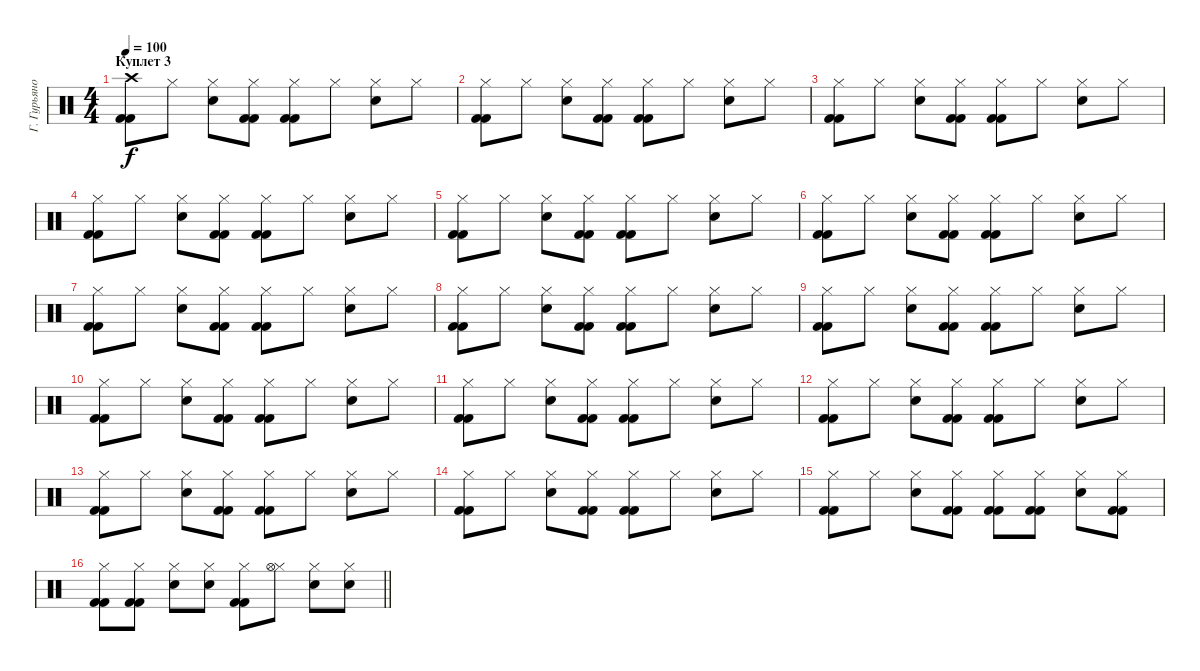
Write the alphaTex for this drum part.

\track ("Г. Гурьянов" "Г. Гурьяно") {instrument percussion}
\staff {score}
\articulation defaults
\ts (4 4)
\section ("" "Куплет 3")
\tempo 100
\clef neutral
\ks c
("Crash high (hit)" "Kick (hit) 2" "Kick (hit) 2").8{dy f} "Hi-Hat (closed)".8 ("Hi-Hat (closed)" "Snare (hit) 2").8 ("Hi-Hat (closed)" "Kick (hit) 2" "Kick (hit) 2").8 ("Hi-Hat (closed)" "Kick (hit) 2" "Kick (hit) 2").8 "Hi-Hat (closed)".8 ("Hi-Hat (closed)" "Snare (hit) 2").8 "Hi-Hat (closed)".8 |
("Hi-Hat (closed)" "Kick (hit) 2" "Kick (hit) 2").8 "Hi-Hat (closed)".8 ("Hi-Hat (closed)" "Snare (hit) 2").8 ("Hi-Hat (closed)" "Kick (hit) 2" "Kick (hit) 2").8 ("Hi-Hat (closed)" "Kick (hit) 2" "Kick (hit) 2").8 "Hi-Hat (closed)".8 ("Hi-Hat (closed)" "Snare (hit) 2").8 "Hi-Hat (closed)".8 |
("Hi-Hat (closed)" "Kick (hit) 2" "Kick (hit) 2").8 "Hi-Hat (closed)".8 ("Hi-Hat (closed)" "Snare (hit) 2").8 ("Hi-Hat (closed)" "Kick (hit) 2" "Kick (hit) 2").8 ("Hi-Hat (closed)" "Kick (hit) 2" "Kick (hit) 2").8 "Hi-Hat (closed)".8 ("Hi-Hat (closed)" "Snare (hit) 2").8 "Hi-Hat (closed)".8 |
("Hi-Hat (closed)" "Kick (hit) 2" "Kick (hit) 2").8 "Hi-Hat (closed)".8 ("Hi-Hat (closed)" "Snare (hit) 2").8 ("Hi-Hat (closed)" "Kick (hit) 2" "Kick (hit) 2").8 ("Hi-Hat (closed)" "Kick (hit) 2" "Kick (hit) 2").8 "Hi-Hat (closed)".8 ("Hi-Hat (closed)" "Snare (hit) 2").8 "Hi-Hat (closed)".8 |
("Hi-Hat (closed)" "Kick (hit) 2" "Kick (hit) 2").8 "Hi-Hat (closed)".8 ("Hi-Hat (closed)" "Snare (hit) 2").8 ("Hi-Hat (closed)" "Kick (hit) 2" "Kick (hit) 2").8 ("Hi-Hat (closed)" "Kick (hit) 2" "Kick (hit) 2").8 "Hi-Hat (closed)".8 ("Hi-Hat (closed)" "Snare (hit) 2").8 "Hi-Hat (closed)".8 |
("Hi-Hat (closed)" "Kick (hit) 2" "Kick (hit) 2").8 "Hi-Hat (closed)".8 ("Hi-Hat (closed)" "Snare (hit) 2").8 ("Hi-Hat (closed)" "Kick (hit) 2" "Kick (hit) 2").8 ("Hi-Hat (closed)" "Kick (hit) 2" "Kick (hit) 2").8 "Hi-Hat (closed)".8 ("Hi-Hat (closed)" "Snare (hit) 2").8 "Hi-Hat (closed)".8 |
("Hi-Hat (closed)" "Kick (hit) 2" "Kick (hit) 2").8 "Hi-Hat (closed)".8 ("Hi-Hat (closed)" "Snare (hit) 2").8 ("Hi-Hat (closed)" "Kick (hit) 2" "Kick (hit) 2").8 ("Hi-Hat (closed)" "Kick (hit) 2" "Kick (hit) 2").8 "Hi-Hat (closed)".8 ("Hi-Hat (closed)" "Snare (hit) 2").8 "Hi-Hat (closed)".8 |
("Hi-Hat (closed)" "Kick (hit) 2" "Kick (hit) 2").8 "Hi-Hat (closed)".8 ("Hi-Hat (closed)" "Snare (hit) 2").8 ("Hi-Hat (closed)" "Kick (hit) 2" "Kick (hit) 2").8 ("Hi-Hat (closed)" "Kick (hit) 2" "Kick (hit) 2").8 "Hi-Hat (closed)".8 ("Hi-Hat (closed)" "Snare (hit) 2").8 "Hi-Hat (closed)".8 |
("Hi-Hat (closed)" "Kick (hit) 2" "Kick (hit) 2").8 "Hi-Hat (closed)".8 ("Hi-Hat (closed)" "Snare (hit) 2").8 ("Hi-Hat (closed)" "Kick (hit) 2" "Kick (hit) 2").8 ("Hi-Hat (closed)" "Kick (hit) 2" "Kick (hit) 2").8 "Hi-Hat (closed)".8 ("Hi-Hat (closed)" "Snare (hit) 2").8 "Hi-Hat (closed)".8 |
("Hi-Hat (closed)" "Kick (hit) 2" "Kick (hit) 2").8 "Hi-Hat (closed)".8 ("Hi-Hat (closed)" "Snare (hit) 2").8 ("Hi-Hat (closed)" "Kick (hit) 2" "Kick (hit) 2").8 ("Hi-Hat (closed)" "Kick (hit) 2" "Kick (hit) 2").8 "Hi-Hat (closed)".8 ("Hi-Hat (closed)" "Snare (hit) 2").8 "Hi-Hat (closed)".8 |
("Hi-Hat (closed)" "Kick (hit) 2" "Kick (hit) 2").8 "Hi-Hat (closed)".8 ("Hi-Hat (closed)" "Snare (hit) 2").8 ("Hi-Hat (closed)" "Kick (hit) 2" "Kick (hit) 2").8 ("Hi-Hat (closed)" "Kick (hit) 2" "Kick (hit) 2").8 "Hi-Hat (closed)".8 ("Hi-Hat (closed)" "Snare (hit) 2").8 "Hi-Hat (closed)".8 |
("Hi-Hat (closed)" "Kick (hit) 2" "Kick (hit) 2").8 "Hi-Hat (closed)".8 ("Hi-Hat (closed)" "Snare (hit) 2").8 ("Hi-Hat (closed)" "Kick (hit) 2" "Kick (hit) 2").8 ("Hi-Hat (closed)" "Kick (hit) 2" "Kick (hit) 2").8 "Hi-Hat (closed)".8 ("Hi-Hat (closed)" "Snare (hit) 2").8 "Hi-Hat (closed)".8 |
("Hi-Hat (closed)" "Kick (hit) 2" "Kick (hit) 2").8 "Hi-Hat (closed)".8 ("Hi-Hat (closed)" "Snare (hit) 2").8 ("Hi-Hat (closed)" "Kick (hit) 2" "Kick (hit) 2").8 ("Hi-Hat (closed)" "Kick (hit) 2" "Kick (hit) 2").8 "Hi-Hat (closed)".8 ("Hi-Hat (closed)" "Snare (hit) 2").8 "Hi-Hat (closed)".8 |
("Hi-Hat (closed)" "Kick (hit) 2" "Kick (hit) 2").8 "Hi-Hat (closed)".8 ("Hi-Hat (closed)" "Snare (hit) 2").8 ("Hi-Hat (closed)" "Kick (hit) 2" "Kick (hit) 2").8 ("Hi-Hat (closed)" "Kick (hit) 2" "Kick (hit) 2").8 "Hi-Hat (closed)".8 ("Hi-Hat (closed)" "Snare (hit) 2").8 "Hi-Hat (closed)".8 |
("Hi-Hat (closed)" "Kick (hit) 2" "Kick (hit) 2").8 "Hi-Hat (closed)".8 ("Hi-Hat (closed)" "Snare (hit) 2").8 ("Hi-Hat (closed)" "Kick (hit) 2" "Kick (hit) 2").8 ("Hi-Hat (closed)" "Kick (hit) 2" "Kick (hit) 2").8 ("Hi-Hat (closed)" "Kick (hit) 2" "Kick (hit) 2").8 ("Hi-Hat (closed)" "Snare (hit) 2").8 ("Hi-Hat (closed)" "Kick (hit) 2" "Kick (hit) 2").8 |
\barLineRight lightlight
("Hi-Hat (closed)" "Kick (hit) 2" "Kick (hit) 2").8 ("Hi-Hat (closed)" "Kick (hit) 2" "Kick (hit) 2").8 ("Hi-Hat (closed)" "Snare (hit) 2").8 ("Hi-Hat (closed)" "Snare (hit) 2").8 ("Hi-Hat (closed)" "Kick (hit) 2" "Kick (hit) 2").8 ("Hi-Hat (closed)" "Hi-Hat (open)").8 ("Hi-Hat (closed)" "Snare (hit) 2").8 ("Hi-Hat (closed)" "Snare (hit) 2").8
